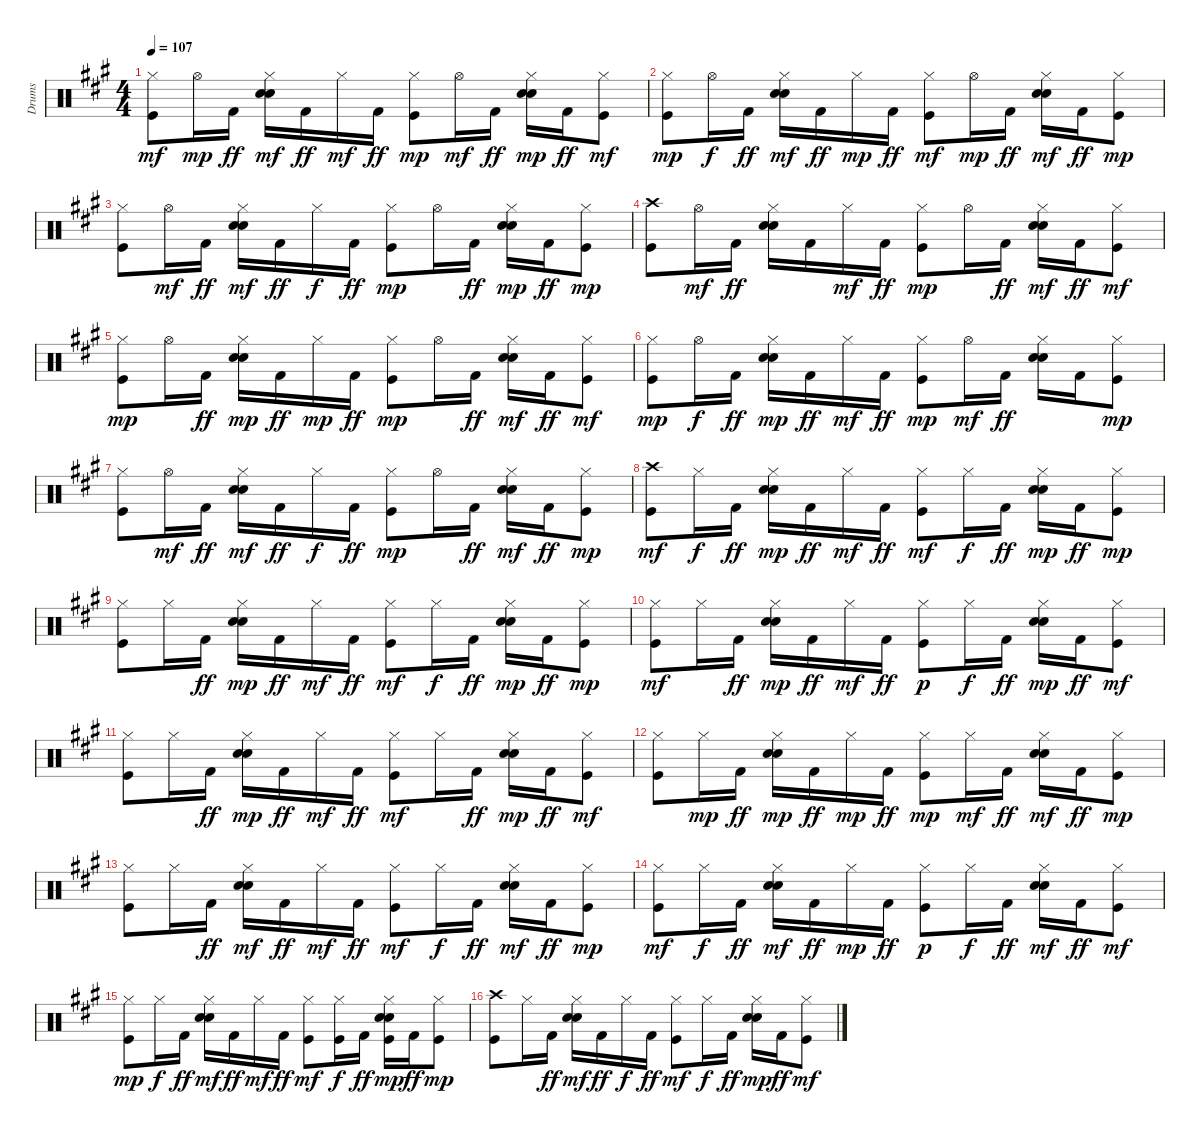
\track ("Drums" "Drums") {instrument percussion}
\staff {score}
\articulation defaults
\ts (4 4)
\tempo 107
\clef neutral
\ks a
("Kick (hit)" "Hi-Hat (closed)").8{dy mf} "Hi-Hat (open)".16{dy mp} "Kick (hit) 2".16{dy ff} ("Snare (hit) 2" "Hand Clap (hit)" "Hi-Hat (closed)").16{dy mf} "Kick (hit) 2".16{dy ff} "Hi-Hat (closed)".16{dy mf} "Kick (hit) 2".16{dy ff} ("Kick (hit)" "Hi-Hat (closed)").8{dy mp} "Hi-Hat (open)".16{dy mf} "Kick (hit) 2".16{dy ff} ("Snare (hit) 2" "Hand Clap (hit)" "Hi-Hat (closed)").16{dy mp} "Kick (hit) 2".16{dy ff} ("Kick (hit)" "Hi-Hat (closed)").8{dy mf} |
("Kick (hit)" "Hi-Hat (closed)").8{dy mp} "Hi-Hat (open)".16{dy f} "Kick (hit) 2".16{dy ff} ("Snare (hit) 2" "Hand Clap (hit)" "Hi-Hat (closed)").16{dy mf} "Kick (hit) 2".16{dy ff} "Hi-Hat (closed)".16{dy mp} "Kick (hit) 2".16{dy ff} ("Kick (hit)" "Hi-Hat (closed)").8{dy mf} "Hi-Hat (open)".16{dy mp} "Kick (hit) 2".16{dy ff} ("Snare (hit) 2" "Hand Clap (hit)" "Hi-Hat (closed)").16{dy mf} "Kick (hit) 2".16{dy ff} ("Kick (hit)" "Hi-Hat (closed)").8{dy mp} |
("Kick (hit)" "Hi-Hat (closed)").8 "Hi-Hat (open)".16{dy mf} "Kick (hit) 2".16{dy ff} ("Snare (hit) 2" "Hand Clap (hit)" "Hi-Hat (closed)").16{dy mf} "Kick (hit) 2".16{dy ff} "Hi-Hat (closed)".16{dy f} "Kick (hit) 2".16{dy ff} ("Kick (hit)" "Hi-Hat (closed)").8{dy mp} "Hi-Hat (open)".16 "Kick (hit) 2".16{dy ff} ("Snare (hit) 2" "Hand Clap (hit)" "Hi-Hat (closed)").16{dy mp} "Kick (hit) 2".16{dy ff} ("Kick (hit)" "Hi-Hat (closed)").8{dy mp} |
("Kick (hit)" "Crash high (hit)").8 "Hi-Hat (open)".16{dy mf} "Kick (hit) 2".16{dy ff} ("Snare (hit) 2" "Hand Clap (hit)" "Hi-Hat (closed)").16 "Kick (hit) 2".16 "Hi-Hat (closed)".16{dy mf} "Kick (hit) 2".16{dy ff} ("Kick (hit)" "Hi-Hat (closed)").8{dy mp} "Hi-Hat (open)".16 "Kick (hit) 2".16{dy ff} ("Snare (hit) 2" "Hand Clap (hit)" "Hi-Hat (closed)").16{dy mf} "Kick (hit) 2".16{dy ff} ("Kick (hit)" "Hi-Hat (closed)").8{dy mf} |
("Kick (hit)" "Hi-Hat (closed)").8{dy mp} "Hi-Hat (open)".16 "Kick (hit) 2".16{dy ff} ("Snare (hit) 2" "Hand Clap (hit)" "Hi-Hat (closed)").16{dy mp} "Kick (hit) 2".16{dy ff} "Hi-Hat (closed)".16{dy mp} "Kick (hit) 2".16{dy ff} ("Kick (hit)" "Hi-Hat (closed)").8{dy mp} "Hi-Hat (open)".16 "Kick (hit) 2".16{dy ff} ("Snare (hit) 2" "Hand Clap (hit)" "Hi-Hat (closed)").16{dy mf} "Kick (hit) 2".16{dy ff} ("Kick (hit)" "Hi-Hat (closed)").8{dy mf} |
("Kick (hit)" "Hi-Hat (closed)").8{dy mp} "Hi-Hat (open)".16{dy f} "Kick (hit) 2".16{dy ff} ("Snare (hit) 2" "Hand Clap (hit)" "Hi-Hat (closed)").16{dy mp} "Kick (hit) 2".16{dy ff} "Hi-Hat (closed)".16{dy mf} "Kick (hit) 2".16{dy ff} ("Kick (hit)" "Hi-Hat (closed)").8{dy mp} "Hi-Hat (open)".16{dy mf} "Kick (hit) 2".16{dy ff} ("Snare (hit) 2" "Hand Clap (hit)" "Hi-Hat (closed)").16 "Kick (hit) 2".16 ("Kick (hit)" "Hi-Hat (closed)").8{dy mp} |
("Kick (hit)" "Hi-Hat (closed)").8 "Hi-Hat (open)".16{dy mf} "Kick (hit) 2".16{dy ff} ("Snare (hit) 2" "Hand Clap (hit)" "Hi-Hat (closed)").16{dy mf} "Kick (hit) 2".16{dy ff} "Hi-Hat (closed)".16{dy f} "Kick (hit) 2".16{dy ff} ("Kick (hit)" "Hi-Hat (closed)").8{dy mp} "Hi-Hat (open)".16 "Kick (hit) 2".16{dy ff} ("Snare (hit) 2" "Hand Clap (hit)" "Hi-Hat (closed)").16{dy mf} "Kick (hit) 2".16{dy ff} ("Kick (hit)" "Hi-Hat (closed)").8{dy mp} |
("Kick (hit)" "Crash high (hit)").8{dy mf} "Hi-Hat (closed)".16{dy f} "Kick (hit) 2".16{dy ff} ("Snare (hit) 2" "Hand Clap (hit)" "Hi-Hat (closed)").16{dy mp} "Kick (hit) 2".16{dy ff} "Hi-Hat (closed)".16{dy mf} "Kick (hit) 2".16{dy ff} ("Kick (hit)" "Hi-Hat (closed)").8{dy mf} "Hi-Hat (closed)".16{dy f} "Kick (hit) 2".16{dy ff} ("Snare (hit) 2" "Hand Clap (hit)" "Hi-Hat (closed)").16{dy mp} "Kick (hit) 2".16{dy ff} ("Kick (hit)" "Hi-Hat (closed)").8{dy mp} |
("Kick (hit)" "Hi-Hat (closed)").8 "Hi-Hat (closed)".16 "Kick (hit) 2".16{dy ff} ("Snare (hit) 2" "Hand Clap (hit)" "Hi-Hat (closed)").16{dy mp} "Kick (hit) 2".16{dy ff} "Hi-Hat (closed)".16{dy mf} "Kick (hit) 2".16{dy ff} ("Kick (hit)" "Hi-Hat (closed)").8{dy mf} "Hi-Hat (closed)".16{dy f} "Kick (hit) 2".16{dy ff} ("Snare (hit) 2" "Hand Clap (hit)" "Hi-Hat (closed)").16{dy mp} "Kick (hit) 2".16{dy ff} ("Kick (hit)" "Hi-Hat (closed)").8{dy mp} |
("Kick (hit)" "Hi-Hat (closed)").8{dy mf} "Hi-Hat (closed)".16 "Kick (hit) 2".16{dy ff} ("Snare (hit) 2" "Hand Clap (hit)" "Hi-Hat (closed)").16{dy mp} "Kick (hit) 2".16{dy ff} "Hi-Hat (closed)".16{dy mf} "Kick (hit) 2".16{dy ff} ("Kick (hit)" "Hi-Hat (closed)").8{dy p} "Hi-Hat (closed)".16{dy f} "Kick (hit) 2".16{dy ff} ("Snare (hit) 2" "Hand Clap (hit)" "Hi-Hat (closed)").16{dy mp} "Kick (hit) 2".16{dy ff} ("Kick (hit)" "Hi-Hat (closed)").8{dy mf} |
("Kick (hit)" "Hi-Hat (closed)").8 "Hi-Hat (closed)".16 "Kick (hit) 2".16{dy ff} ("Snare (hit) 2" "Hand Clap (hit)" "Hi-Hat (closed)").16{dy mp} "Kick (hit) 2".16{dy ff} "Hi-Hat (closed)".16{dy mf} "Kick (hit) 2".16{dy ff} ("Kick (hit)" "Hi-Hat (closed)").8{dy mf} "Hi-Hat (closed)".16 "Kick (hit) 2".16{dy ff} ("Snare (hit) 2" "Hand Clap (hit)" "Hi-Hat (closed)").16{dy mp} "Kick (hit) 2".16{dy ff} ("Kick (hit)" "Hi-Hat (closed)").8{dy mf} |
("Kick (hit)" "Hi-Hat (closed)").8 "Hi-Hat (closed)".16{dy mp} "Kick (hit) 2".16{dy ff} ("Snare (hit) 2" "Hand Clap (hit)" "Hi-Hat (closed)").16{dy mp} "Kick (hit) 2".16{dy ff} "Hi-Hat (closed)".16{dy mp} "Kick (hit) 2".16{dy ff} ("Kick (hit)" "Hi-Hat (closed)").8{dy mp} "Hi-Hat (closed)".16{dy mf} "Kick (hit) 2".16{dy ff} ("Snare (hit) 2" "Hand Clap (hit)" "Hi-Hat (closed)").16{dy mf} "Kick (hit) 2".16{dy ff} ("Kick (hit)" "Hi-Hat (closed)").8{dy mp} |
("Kick (hit)" "Hi-Hat (closed)").8 "Hi-Hat (closed)".16 "Kick (hit) 2".16{dy ff} ("Snare (hit) 2" "Hand Clap (hit)" "Hi-Hat (closed)").16{dy mf} "Kick (hit) 2".16{dy ff} "Hi-Hat (closed)".16{dy mf} "Kick (hit) 2".16{dy ff} ("Kick (hit)" "Hi-Hat (closed)").8{dy mf} "Hi-Hat (closed)".16{dy f} "Kick (hit) 2".16{dy ff} ("Snare (hit) 2" "Hand Clap (hit)" "Hi-Hat (closed)").16{dy mf} "Kick (hit) 2".16{dy ff} ("Kick (hit)" "Hi-Hat (closed)").8{dy mp} |
("Kick (hit)" "Hi-Hat (closed)").8{dy mf} "Hi-Hat (closed)".16{dy f} "Kick (hit) 2".16{dy ff} ("Snare (hit) 2" "Hand Clap (hit)" "Hi-Hat (closed)").16{dy mf} "Kick (hit) 2".16{dy ff} "Hi-Hat (closed)".16{dy mp} "Kick (hit) 2".16{dy ff} ("Kick (hit)" "Hi-Hat (closed)").8{dy p} "Hi-Hat (closed)".16{dy f} "Kick (hit) 2".16{dy ff} ("Snare (hit) 2" "Hand Clap (hit)" "Hi-Hat (closed)").16{dy mf} "Kick (hit) 2".16{dy ff} ("Kick (hit)" "Hi-Hat (closed)").8{dy mf} |
("Kick (hit)" "Hi-Hat (closed)").8{dy mp} "Hi-Hat (closed)".16{dy f} "Kick (hit) 2".16{dy ff} ("Snare (hit) 2" "Hand Clap (hit)" "Hi-Hat (closed)").16{dy mf} "Kick (hit) 2".16{dy ff} "Hi-Hat (closed)".16{dy mf} "Kick (hit) 2".16{dy ff} ("Kick (hit)" "Hi-Hat (closed)").8{dy mf} ("Kick (hit)" "Hi-Hat (closed)").16{dy f} "Kick (hit) 2".16{dy ff} ("Kick (hit)" "Snare (hit) 2" "Hand Clap (hit)" "Hi-Hat (closed)").16{dy mp} "Kick (hit) 2".16{dy ff} ("Kick (hit)" "Hi-Hat (closed)").8{dy mp} |
("Kick (hit)" "Crash high (hit)").8 "Hi-Hat (closed)".16 "Kick (hit) 2".16{dy ff} ("Snare (hit) 2" "Hand Clap (hit)" "Hi-Hat (closed)").16{dy mf} "Kick (hit) 2".16{dy ff} "Hi-Hat (closed)".16{dy f} "Kick (hit) 2".16{dy ff} ("Kick (hit)" "Hi-Hat (closed)").8{dy mf} "Hi-Hat (closed)".16{dy f} "Kick (hit) 2".16{dy ff} ("Snare (hit) 2" "Hand Clap (hit)" "Hi-Hat (closed)").16{dy mp} "Kick (hit) 2".16{dy ff} ("Kick (hit)" "Hi-Hat (closed)").8{dy mf}
